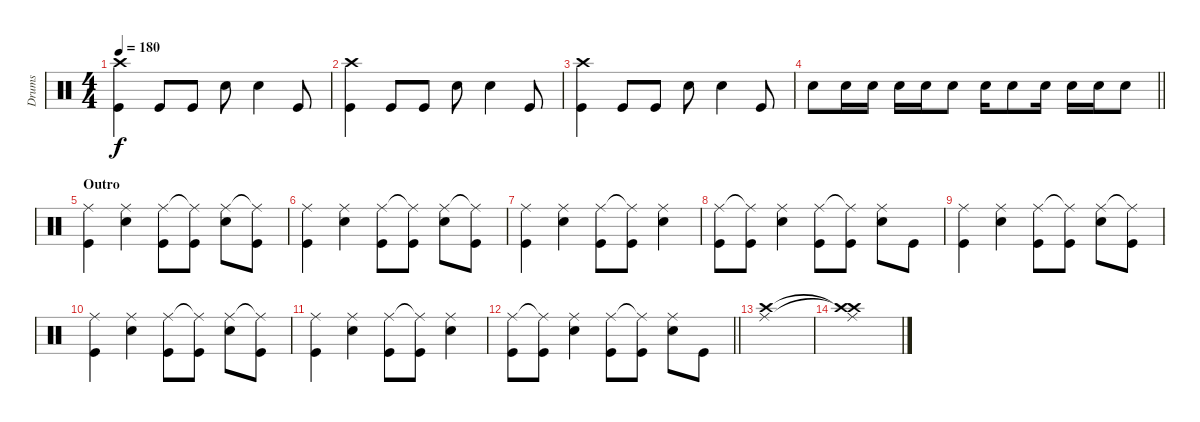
\track ("Drums" "Drums") {instrument percussion}
\staff {score}
\articulation defaults
\ts (4 4)
\tempo 180
\clef neutral
\ks c
("Kick (hit)" "Crash high (hit)").4{dy f} "Kick (hit)".8 "Kick (hit)".8 "Snare (hit) 2".8 "Snare (hit) 2".4 "Kick (hit)".8 |
("Kick (hit)" "Crash high (hit)").4 "Kick (hit)".8 "Kick (hit)".8 "Snare (hit) 2".8 "Snare (hit) 2".4 "Kick (hit)".8 |
("Kick (hit)" "Crash high (hit)").4 "Kick (hit)".8 "Kick (hit)".8 "Snare (hit) 2".8 "Snare (hit) 2".4 "Kick (hit)".8 |
\barLineRight lightlight "Snare (hit) 2".8 "Snare (hit) 2".16 "Snare (hit) 2".16 "Snare (hit) 2".16 "Snare (hit) 2".16 "Snare (hit) 2".8 "Snare (hit) 2".16 "Snare (hit) 2".8 "Snare (hit) 2".16 "Snare (hit) 2".16 "Snare (hit) 2".16 "Snare (hit) 2".8
|
\section ("" "Outro")
("Kick (hit)" "Ride (middle)").4 ("Snare (hit) 2" "Ride (middle)").4 ("Kick (hit)" "Ride (middle)").8 ("Kick (hit)" "Ride (middle)"{t}).8 ("Snare (hit) 2" "Ride (middle)").8 ("Kick (hit)" "Ride (middle)"{t}).8 |
("Kick (hit)" "Ride (middle)").4 ("Snare (hit) 2" "Ride (middle)").4 ("Kick (hit)" "Ride (middle)").8 ("Kick (hit)" "Ride (middle)"{t}).8 ("Snare (hit) 2" "Ride (middle)").8 ("Kick (hit)" "Ride (middle)"{t}).8 |
("Kick (hit)" "Ride (middle)").4 ("Snare (hit) 2" "Ride (middle)").4 ("Kick (hit)" "Ride (middle)").8 ("Kick (hit)" "Ride (middle)"{t}).8 ("Snare (hit) 2" "Ride (middle)").4 |
("Kick (hit)" "Ride (middle)").8 ("Kick (hit)" "Ride (middle)"{t}).8 ("Snare (hit) 2" "Ride (middle)").4 ("Kick (hit)" "Ride (middle)").8 ("Kick (hit)" "Ride (middle)"{t}).8 ("Snare (hit) 2" "Ride (middle)").8 "Kick (hit)".8 |
("Kick (hit)" "Ride (middle)").4 ("Snare (hit) 2" "Ride (middle)").4 ("Kick (hit)" "Ride (middle)").8 ("Kick (hit)" "Ride (middle)"{t}).8 ("Snare (hit) 2" "Ride (middle)").8 ("Kick (hit)" "Ride (middle)"{t}).8 |
("Kick (hit)" "Ride (middle)").4 ("Snare (hit) 2" "Ride (middle)").4 ("Kick (hit)" "Ride (middle)").8 ("Kick (hit)" "Ride (middle)"{t}).8 ("Snare (hit) 2" "Ride (middle)").8 ("Kick (hit)" "Ride (middle)"{t}).8 |
("Kick (hit)" "Ride (middle)").4 ("Snare (hit) 2" "Ride (middle)").4 ("Kick (hit)" "Ride (middle)").8 ("Kick (hit)" "Ride (middle)"{t}).8 ("Snare (hit) 2" "Ride (middle)").4 |
\barLineRight lightlight
("Kick (hit)" "Ride (middle)").8 ("Kick (hit)" "Ride (middle)"{t}).8 ("Snare (hit) 2" "Ride (middle)").4 ("Kick (hit)" "Ride (middle)").8 ("Kick (hit)" "Ride (middle)"{t}).8 ("Snare (hit) 2" "Ride (middle)").8 "Kick (hit)".8 |
("Crash high (hit)" "Ride (middle)").1 |
("Crash high (hit)"{t} "Crash high (hit)"{t} "Ride (middle)").1
